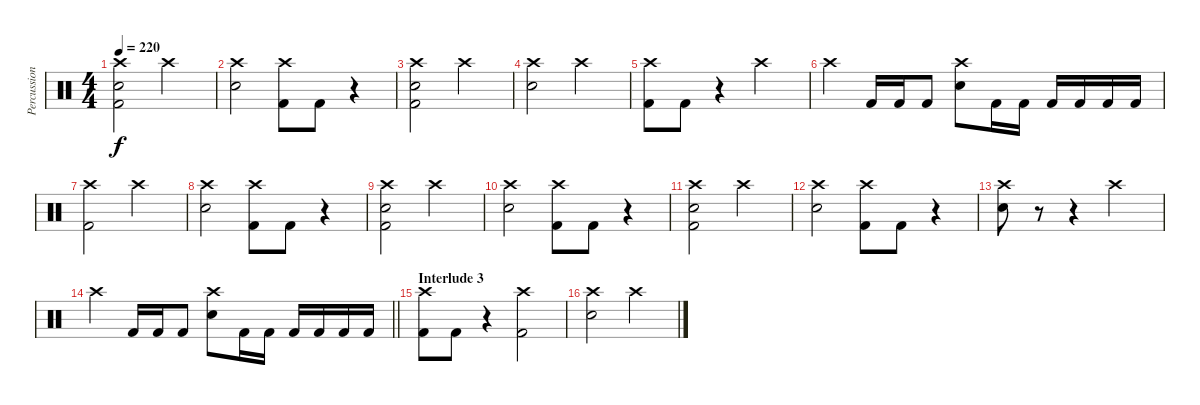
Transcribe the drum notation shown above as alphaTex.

\track ("Percussion" "Percussion") {instrument percussion}
\staff {score}
\articulation defaults
\ts (4 4)
\tempo 220
\clef neutral
\ks c
("Crash high (hit)" "Snare (hit) 2" "Kick (hit) 2").2{dy f} "Crash high (hit)".2 |
("Crash high (hit)" "Snare (hit) 2").2 ("Crash high (hit)" "Kick (hit) 2").8 "Kick (hit) 2".8 r.4 |
("Crash high (hit)" "Snare (hit) 2" "Kick (hit) 2").2 "Crash high (hit)".2 |
("Crash high (hit)" "Snare (hit) 2").2 "Crash high (hit)".2 |
("Crash high (hit)" "Kick (hit) 2").8 "Kick (hit) 2".8 r.4 "Crash high (hit)".2 |
"Crash high (hit)".4 "Kick (hit) 2".16 "Kick (hit) 2".16 "Kick (hit) 2".8 ("Crash high (hit)" "Snare (hit) 2").8 "Kick (hit) 2".16 "Kick (hit) 2".16 "Kick (hit) 2".16 "Kick (hit) 2".16 "Kick (hit) 2".16 "Kick (hit) 2".16 |
("Crash high (hit)" "Kick (hit) 2").2 "Crash high (hit)".2 |
("Crash high (hit)" "Snare (hit) 2").2 ("Crash high (hit)" "Kick (hit) 2").8 "Kick (hit) 2".8 r.4 |
("Crash high (hit)" "Snare (hit) 2" "Kick (hit) 2").2 "Crash high (hit)".2 |
("Crash high (hit)" "Snare (hit) 2").2 ("Crash high (hit)" "Kick (hit) 2").8 "Kick (hit) 2".8 r.4 |
("Crash high (hit)" "Snare (hit) 2" "Kick (hit) 2").2 "Crash high (hit)".2 |
("Crash high (hit)" "Snare (hit) 2").2 ("Crash high (hit)" "Kick (hit) 2").8 "Kick (hit) 2".8 r.4 |
("Crash high (hit)" "Snare (hit) 2").8 r.8 r.4 "Crash high (hit)".2 |
\barLineRight lightlight "Crash high (hit)".4 "Kick (hit) 2".16 "Kick (hit) 2".16 "Kick (hit) 2".8
("Crash high (hit)" "Snare (hit) 2").8 "Kick (hit) 2".16 "Kick (hit) 2".16 "Kick (hit) 2".16 "Kick (hit) 2".16 "Kick (hit) 2".16 "Kick (hit) 2".16 |
\section ("" "Interlude 3")
("Crash high (hit)" "Kick (hit) 2").8 "Kick (hit) 2".8 r.4 ("Crash high (hit)" "Kick (hit) 2").2 |
("Crash high (hit)" "Snare (hit) 2").2 "Crash high (hit)".2
